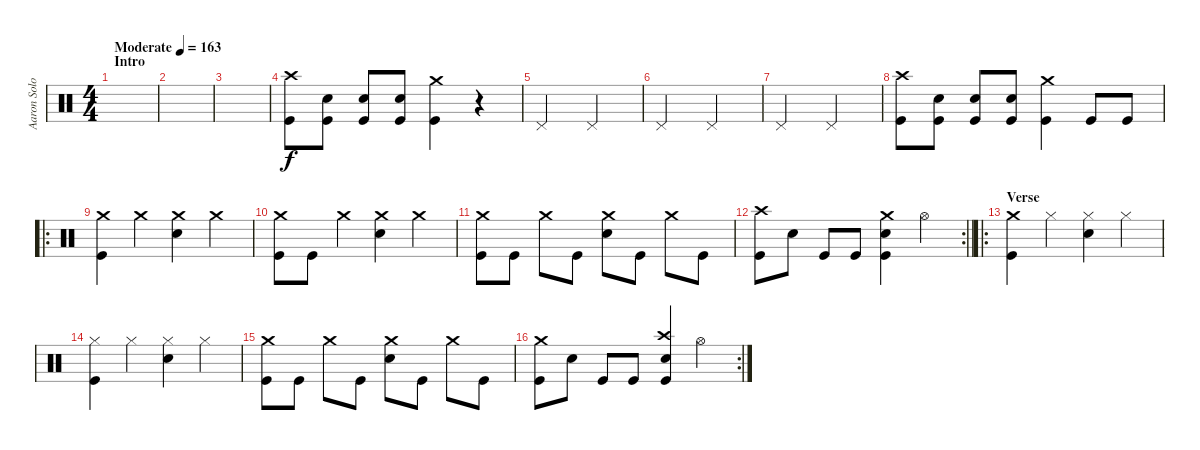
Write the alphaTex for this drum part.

\track ("Aaron Solowoniuk - Schlagzeug" "Aaron Solo") {instrument percussion}
\staff {score}
\articulation defaults
\ts (4 4)
\section ("" "Intro")
\tempo (163 "Moderate")
\clef neutral
\ks c
|
|
|
("Kick (hit)" "Crash high (hit)").8 ("Kick (hit)" "Electric Snare (hit)").8 ("Kick (hit)" "Electric Snare (hit)").8 ("Kick (hit)" "Electric Snare (hit)").8 ("Kick (hit)" "Crash medium (hit)").4 r.4 |
"Pedal Hi-Hat (hit)".2 "Pedal Hi-Hat (hit)".2 |
"Pedal Hi-Hat (hit)".2 "Pedal Hi-Hat (hit)".2 |
"Pedal Hi-Hat (hit)".2 "Pedal Hi-Hat (hit)".2 |
("Kick (hit)" "Crash high (hit)").8 ("Kick (hit)" "Electric Snare (hit)").8 ("Kick (hit)" "Electric Snare (hit)").8 ("Kick (hit)" "Electric Snare (hit)").8 ("Kick (hit)" "Crash medium (hit)").4 "Kick (hit)".8 "Kick (hit)".8 |
\ro
("Crash medium (hit)" "Kick (hit)").4 "Crash medium (hit)".4 ("Crash medium (hit)" "Electric Snare (hit)").4 "Crash medium (hit)".4 |
("Crash medium (hit)" "Kick (hit)").8 "Kick (hit)".8 "Crash medium (hit)".4 ("Crash medium (hit)" "Electric Snare (hit)").4 "Crash medium (hit)".4 |
("Crash medium (hit)" "Kick (hit)").8 "Kick (hit)".8 "Crash medium (hit)".8 "Kick (hit)".8 ("Crash medium (hit)" "Electric Snare (hit)").8 "Kick (hit)".8 "Crash medium (hit)".8 "Kick (hit)".8 |
\rc 2
\barLineRight lightlight
("Kick (hit)" "Crash high (hit)").8 "Electric Snare (hit)".8 "Kick (hit)".8 "Kick (hit)".8 ("Kick (hit)" "Electric Snare (hit)" "Crash medium (hit)").4 "Hi-Hat (open)".4 |
\ro
\section ("" "Verse")
("Crash medium (hit)" "Kick (hit)").4 "Hi-Hat (closed)".4 ("Hi-Hat (closed)" "Electric Snare (hit)").4 "Hi-Hat (closed)".4 |
("Hi-Hat (closed)" "Kick (hit)").4 "Hi-Hat (closed)".4 ("Hi-Hat (closed)" "Electric Snare (hit)").4 "Hi-Hat (closed)".4 |
("Crash medium (hit)" "Kick (hit)").8 "Kick (hit)".8 "Crash medium (hit)".8 "Kick (hit)".8 ("Crash medium (hit)" "Electric Snare (hit)").8 "Kick (hit)".8 "Crash medium (hit)".8 "Kick (hit)".8 |
\rc 2
("Crash medium (hit)" "Kick (hit)").8 "Electric Snare (hit)".8 "Kick (hit)".8 "Kick (hit)".8 ("Kick (hit)" "Electric Snare (hit)" "Crash high (hit)").4 "Hi-Hat (open)".4
